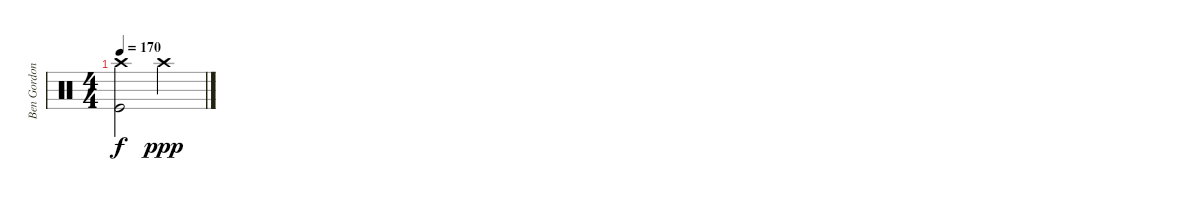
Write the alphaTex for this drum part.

\track ("Ben Gordon" "Ben Gordon") {instrument percussion}
\staff {score}
\articulation defaults
\ts (4 4)
\tempo 170
\clef neutral
\ks c
("Crash high (hit)" "Kick (hit)").2{dy f} "Crash high (hit)".2{dy ppp}
